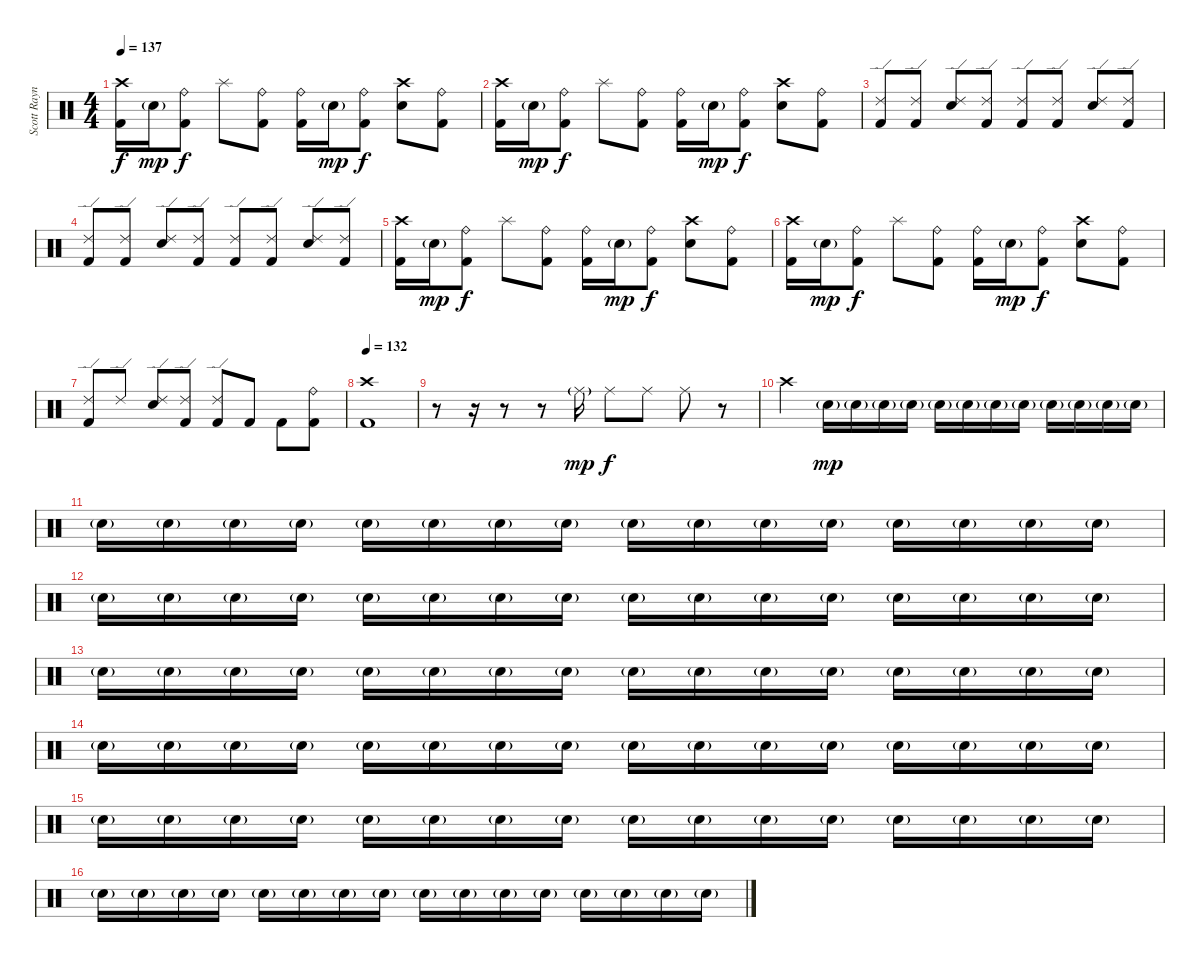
\track ("Scott Raynor" "Scott Rayn") {instrument percussion}
\staff {score}
\articulation defaults
\ts (4 4)
\tempo 137
\clef neutral
\ks c
("Crash high (hit)" "Kick (hit) 2").16{dy f} "Snare (hit) 2"{g}.16{dy mp} ("Ride (bell)" "Kick (hit) 2").8{dy f} "Splash (hit)".8 ("Ride (bell)" "Kick (hit) 2").8 ("Ride (bell)" "Kick (hit) 2").16 "Snare (hit) 2"{g}.16{dy mp} ("Ride (bell)" "Kick (hit) 2").8{dy f} ("Crash high (hit)" "Snare (hit) 2").8 ("Ride (bell)" "Kick (hit) 2").8 |
("Crash high (hit)" "Kick (hit) 2").16 "Snare (hit) 2"{g}.16{dy mp} ("Ride (bell)" "Kick (hit) 2").8{dy f} "Splash (hit)".8 ("Ride (bell)" "Kick (hit) 2").8 ("Ride (bell)" "Kick (hit) 2").16 "Snare (hit) 2"{g}.16{dy mp} ("Ride (bell)" "Kick (hit) 2").8{dy f} ("Crash high (hit)" "Snare (hit) 2").8 ("Ride (bell)" "Kick (hit) 2").8 |
("Ride (edge) 2" "Kick (hit) 2").8 ("Ride (edge) 2" "Kick (hit) 2").8 ("Ride (edge) 2" "Snare (hit) 2").8 ("Ride (edge) 2" "Kick (hit) 2").8 ("Ride (edge) 2" "Kick (hit) 2").8 ("Ride (edge) 2" "Kick (hit) 2").8 ("Ride (edge) 2" "Snare (hit) 2").8 ("Ride (edge) 2" "Kick (hit) 2").8 |
("Ride (edge) 2" "Kick (hit) 2").8 ("Ride (edge) 2" "Kick (hit) 2").8 ("Ride (edge) 2" "Snare (hit) 2").8 ("Ride (edge) 2" "Kick (hit) 2").8 ("Ride (edge) 2" "Kick (hit) 2").8 ("Ride (edge) 2" "Kick (hit) 2").8 ("Ride (edge) 2" "Snare (hit) 2").8 ("Ride (edge) 2" "Kick (hit) 2").8 |
("Crash high (hit)" "Kick (hit) 2").16 "Snare (hit) 2"{g}.16{dy mp} ("Ride (bell)" "Kick (hit) 2").8{dy f} "Splash (hit)".8 ("Ride (bell)" "Kick (hit) 2").8 ("Ride (bell)" "Kick (hit) 2").16 "Snare (hit) 2"{g}.16{dy mp} ("Ride (bell)" "Kick (hit) 2").8{dy f} ("Crash high (hit)" "Snare (hit) 2").8 ("Ride (bell)" "Kick (hit) 2").8 |
("Crash high (hit)" "Kick (hit) 2").16 "Snare (hit) 2"{g}.16{dy mp} ("Ride (bell)" "Kick (hit) 2").8{dy f} "Splash (hit)".8 ("Ride (bell)" "Kick (hit) 2").8 ("Ride (bell)" "Kick (hit) 2").16 "Snare (hit) 2"{g}.16{dy mp} ("Ride (bell)" "Kick (hit) 2").8{dy f} ("Crash high (hit)" "Snare (hit) 2").8 ("Ride (bell)" "Kick (hit) 2").8 |
("Ride (edge) 2" "Kick (hit) 2").8 "Ride (edge) 2".8 ("Ride (edge) 2" "Snare (hit) 2").8 ("Ride (edge) 2" "Kick (hit) 2").8 ("Ride (edge) 2" "Kick (hit) 2").8 "Kick (hit) 2".8 "Kick (hit) 2".8 ("Ride (bell)" "Kick (hit) 2").8 |
\tempo 132
("Crash high (hit)" "Kick (hit) 2").1 |
r.8 r.16 r.8 r.8 "Ride (middle)"{g}.16{dy mp} "Ride (middle)".8{dy f} "Ride (middle)".8 "Ride (middle)".8 r.8 |
"Crash high (hit)".4 "Snare (hit) 2"{g}.16{dy mp volume 8} "Snare (hit) 2"{g}.16 "Snare (hit) 2"{g}.16 "Snare (hit) 2"{g}.16 "Snare (hit) 2"{g}.16 "Snare (hit) 2"{g}.16 "Snare (hit) 2"{g}.16 "Snare (hit) 2"{g}.16 "Snare (hit) 2"{g}.16 "Snare (hit) 2"{g}.16 "Snare (hit) 2"{g}.16 "Snare (hit) 2"{g}.16 |
"Snare (hit) 2"{g}.16 "Snare (hit) 2"{g}.16 "Snare (hit) 2"{g}.16 "Snare (hit) 2"{g}.16 "Snare (hit) 2"{g}.16 "Snare (hit) 2"{g}.16 "Snare (hit) 2"{g}.16 "Snare (hit) 2"{g}.16 "Snare (hit) 2"{g}.16 "Snare (hit) 2"{g}.16 "Snare (hit) 2"{g}.16 "Snare (hit) 2"{g}.16 "Snare (hit) 2"{g}.16 "Snare (hit) 2"{g}.16 "Snare (hit) 2"{g}.16 "Snare (hit) 2"{g}.16 |
"Snare (hit) 2"{g}.16 "Snare (hit) 2"{g}.16 "Snare (hit) 2"{g}.16 "Snare (hit) 2"{g}.16 "Snare (hit) 2"{g}.16 "Snare (hit) 2"{g}.16 "Snare (hit) 2"{g}.16 "Snare (hit) 2"{g}.16 "Snare (hit) 2"{g}.16 "Snare (hit) 2"{g}.16 "Snare (hit) 2"{g}.16 "Snare (hit) 2"{g}.16 "Snare (hit) 2"{g}.16 "Snare (hit) 2"{g}.16 "Snare (hit) 2"{g}.16 "Snare (hit) 2"{g}.16 |
"Snare (hit) 2"{g}.16 "Snare (hit) 2"{g}.16 "Snare (hit) 2"{g}.16 "Snare (hit) 2"{g}.16 "Snare (hit) 2"{g}.16 "Snare (hit) 2"{g}.16 "Snare (hit) 2"{g}.16 "Snare (hit) 2"{g}.16 "Snare (hit) 2"{g}.16 "Snare (hit) 2"{g}.16 "Snare (hit) 2"{g}.16 "Snare (hit) 2"{g}.16 "Snare (hit) 2"{g}.16 "Snare (hit) 2"{g}.16 "Snare (hit) 2"{g}.16 "Snare (hit) 2"{g}.16 |
"Snare (hit) 2"{g}.16 "Snare (hit) 2"{g}.16 "Snare (hit) 2"{g}.16 "Snare (hit) 2"{g}.16 "Snare (hit) 2"{g}.16 "Snare (hit) 2"{g}.16 "Snare (hit) 2"{g}.16 "Snare (hit) 2"{g}.16 "Snare (hit) 2"{g}.16 "Snare (hit) 2"{g}.16 "Snare (hit) 2"{g}.16 "Snare (hit) 2"{g}.16 "Snare (hit) 2"{g}.16 "Snare (hit) 2"{g}.16 "Snare (hit) 2"{g}.16 "Snare (hit) 2"{g}.16 |
"Snare (hit) 2"{g}.16 "Snare (hit) 2"{g}.16 "Snare (hit) 2"{g}.16 "Snare (hit) 2"{g}.16 "Snare (hit) 2"{g}.16 "Snare (hit) 2"{g}.16 "Snare (hit) 2"{g}.16 "Snare (hit) 2"{g}.16 "Snare (hit) 2"{g}.16 "Snare (hit) 2"{g}.16 "Snare (hit) 2"{g}.16 "Snare (hit) 2"{g}.16 "Snare (hit) 2"{g}.16 "Snare (hit) 2"{g}.16 "Snare (hit) 2"{g}.16 "Snare (hit) 2"{g}.16 |
"Snare (hit) 2"{g}.16 "Snare (hit) 2"{g}.16 "Snare (hit) 2"{g}.16 "Snare (hit) 2"{g}.16 "Snare (hit) 2"{g}.16 "Snare (hit) 2"{g}.16 "Snare (hit) 2"{g}.16 "Snare (hit) 2"{g}.16 "Snare (hit) 2"{g}.16 "Snare (hit) 2"{g}.16 "Snare (hit) 2"{g}.16 "Snare (hit) 2"{g}.16 "Snare (hit) 2"{g}.16 "Snare (hit) 2"{g}.16 "Snare (hit) 2"{g}.16 "Snare (hit) 2"{g}.16
